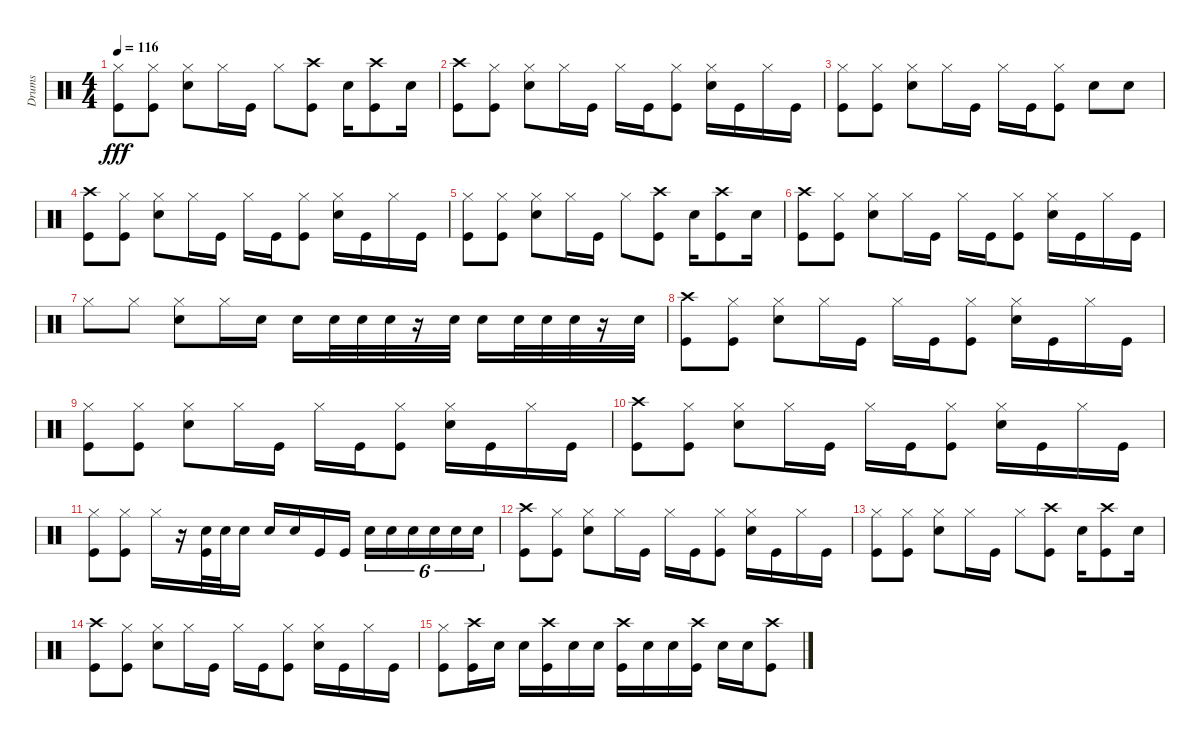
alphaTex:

\track ("Drums" "Drums") {instrument percussion}
\staff {score}
\articulation defaults
\ts (4 4)
\tempo 116
\clef neutral
\ks c
("Kick (hit)" "Hi-Hat (closed)").8{dy fff} ("Kick (hit)" "Hi-Hat (closed)").8 ("Snare (hit) 2" "Hi-Hat (closed)").8 "Hi-Hat (closed)".16 "Kick (hit)".16 "Hi-Hat (closed)".8 ("Crash high (hit)" "Kick (hit)").8 "Snare (hit) 2".16 ("Crash high (hit)" "Kick (hit)").8 "Snare (hit) 2".16 |
("Crash high (hit)" "Kick (hit)").8 ("Kick (hit)" "Hi-Hat (closed)").8 ("Hi-Hat (closed)" "Snare (hit) 2").8 "Hi-Hat (closed)".16 "Kick (hit)".16 "Hi-Hat (closed)".16 "Kick (hit)".16 ("Hi-Hat (closed)" "Kick (hit)").8 ("Hi-Hat (closed)" "Snare (hit) 2").16 "Kick (hit)".16 "Hi-Hat (closed)".16 "Kick (hit)".16 |
("Hi-Hat (closed)" "Kick (hit)").8 ("Hi-Hat (closed)" "Kick (hit)").8 ("Snare (hit) 2" "Hi-Hat (closed)").8 "Hi-Hat (closed)".16 "Kick (hit)".16 "Hi-Hat (closed)".16 "Kick (hit)".16 ("Kick (hit)" "Hi-Hat (closed)").8 "Snare (hit) 2".8 "Snare (hit) 2".8 |
("Kick (hit)" "Crash high (hit)").8 ("Hi-Hat (closed)" "Kick (hit)").8 ("Hi-Hat (closed)" "Snare (hit) 2").8 "Hi-Hat (closed)".16 "Kick (hit)".16 "Hi-Hat (closed)".16 "Kick (hit)".16 ("Kick (hit)" "Hi-Hat (closed)").8 ("Hi-Hat (closed)" "Snare (hit) 2").16 "Kick (hit)".16 "Hi-Hat (closed)".16 "Kick (hit)".16 |
("Hi-Hat (closed)" "Kick (hit)").8 ("Hi-Hat (closed)" "Kick (hit)").8 ("Snare (hit) 2" "Hi-Hat (closed)").8 "Hi-Hat (closed)".16 "Kick (hit)".16 "Hi-Hat (closed)".8 ("Kick (hit)" "Crash high (hit)").8 "Snare (hit) 2".16 ("Kick (hit)" "Crash high (hit)").8 "Snare (hit) 2".16 |
("Crash high (hit)" "Kick (hit)").8 ("Kick (hit)" "Hi-Hat (closed)").8 ("Hi-Hat (closed)" "Snare (hit) 2").8 "Hi-Hat (closed)".16 "Kick (hit)".16 "Hi-Hat (closed)".16 "Kick (hit)".16 ("Kick (hit)" "Hi-Hat (closed)").8 ("Hi-Hat (closed)" "Snare (hit) 2").16 "Kick (hit)".16 "Hi-Hat (closed)".16 "Kick (hit)".16 |
"Hi-Hat (closed)".8 "Hi-Hat (closed)".8 ("Snare (hit) 2" "Hi-Hat (closed)").8 "Hi-Hat (closed)".16 "Snare (hit) 2".16 "Snare (hit) 2".16 "Snare (hit) 2".32 "Snare (hit) 2".32 "Snare (hit) 2".32 r.16 "Snare (hit) 2".32 "Snare (hit) 2".16 "Snare (hit) 2".32 "Snare (hit) 2".32 "Snare (hit) 2".32 r.16 "Snare (hit) 2".32 |
("Kick (hit)" "Crash high (hit)").8 ("Hi-Hat (closed)" "Kick (hit)").8 ("Hi-Hat (closed)" "Snare (hit) 2").8 "Hi-Hat (closed)".16 "Kick (hit)".16 "Hi-Hat (closed)".16 "Kick (hit)".16 ("Kick (hit)" "Hi-Hat (closed)").8 ("Snare (hit) 2" "Hi-Hat (closed)").16 "Kick (hit)".16 "Hi-Hat (closed)".16 "Kick (hit)".16 |
("Hi-Hat (closed)" "Kick (hit)").8 ("Kick (hit)" "Hi-Hat (closed)").8 ("Hi-Hat (closed)" "Snare (hit) 2").8 "Hi-Hat (closed)".16 "Kick (hit)".16 "Hi-Hat (closed)".16 "Kick (hit)".16 ("Hi-Hat (closed)" "Kick (hit)").8 ("Hi-Hat (closed)" "Snare (hit) 2").16 "Kick (hit)".16 "Hi-Hat (closed)".16 "Kick (hit)".16 |
("Kick (hit)" "Crash high (hit)").8 ("Hi-Hat (closed)" "Kick (hit)").8 ("Snare (hit) 2" "Hi-Hat (closed)").8 "Hi-Hat (closed)".16 "Kick (hit)".16 "Hi-Hat (closed)".16 "Kick (hit)".16 ("Kick (hit)" "Hi-Hat (closed)").8 ("Snare (hit) 2" "Hi-Hat (closed)").16 "Kick (hit)".16 "Hi-Hat (closed)".16 "Kick (hit)".16 |
("Hi-Hat (closed)" "Kick (hit)").8 ("Hi-Hat (closed)" "Kick (hit)").8 "Hi-Hat (closed)".16 r.16 ("Snare (hit) 2" "Kick (hit)").32 "Snare (hit) 2".32 "Snare (hit) 2".16 "Snare (hit) 2".16 "Snare (hit) 2".16 "Kick (hit)".16 "Kick (hit)".16 "Snare (hit) 2".16{tu (6 4)} "Snare (hit) 2".16{tu (6 4)} "Snare (hit) 2".16{tu (6 4)} "Snare (hit) 2".16{tu (6 4)} "Snare (hit) 2".16{tu (6 4)} "Snare (hit) 2".16{tu (6 4)} |
("Kick (hit)" "Crash high (hit)").8 ("Hi-Hat (closed)" "Kick (hit)").8 ("Hi-Hat (closed)" "Snare (hit) 2").8 "Hi-Hat (closed)".16 "Kick (hit)".16 "Hi-Hat (closed)".16 "Kick (hit)".16 ("Hi-Hat (closed)" "Kick (hit)").8 ("Hi-Hat (closed)" "Snare (hit) 2").16 "Kick (hit)".16 "Hi-Hat (closed)".16 "Kick (hit)".16 |
("Kick (hit)" "Hi-Hat (closed)").8 ("Hi-Hat (closed)" "Kick (hit)").8 ("Hi-Hat (closed)" "Snare (hit) 2").8 "Hi-Hat (closed)".16 "Kick (hit)".16 "Hi-Hat (closed)".8 ("Kick (hit)" "Crash high (hit)").8 "Snare (hit) 2".16 ("Kick (hit)" "Crash high (hit)").8 "Snare (hit) 2".16 |
("Kick (hit)" "Crash high (hit)").8 ("Kick (hit)" "Hi-Hat (closed)").8 ("Snare (hit) 2" "Hi-Hat (closed)").8 "Hi-Hat (closed)".16 "Kick (hit)".16 "Hi-Hat (closed)".16 "Kick (hit)".16 ("Kick (hit)" "Hi-Hat (closed)").8 ("Snare (hit) 2" "Hi-Hat (closed)").16 "Kick (hit)".16 "Hi-Hat (closed)".16 "Kick (hit)".16 |
("Hi-Hat (closed)" "Kick (hit)").8 ("Kick (hit)" "Crash high (hit)").16 "Snare (hit) 2".16 "Snare (hit) 2".16 ("Crash high (hit)" "Kick (hit)").16 "Snare (hit) 2".16 "Snare (hit) 2".16 ("Kick (hit)" "Crash high (hit)").16 "Snare (hit) 2".16 "Snare (hit) 2".16 ("Crash high (hit)" "Kick (hit)").16 "Snare (hit) 2".16 "Snare (hit) 2".16 ("Crash high (hit)" "Kick (hit)").8
